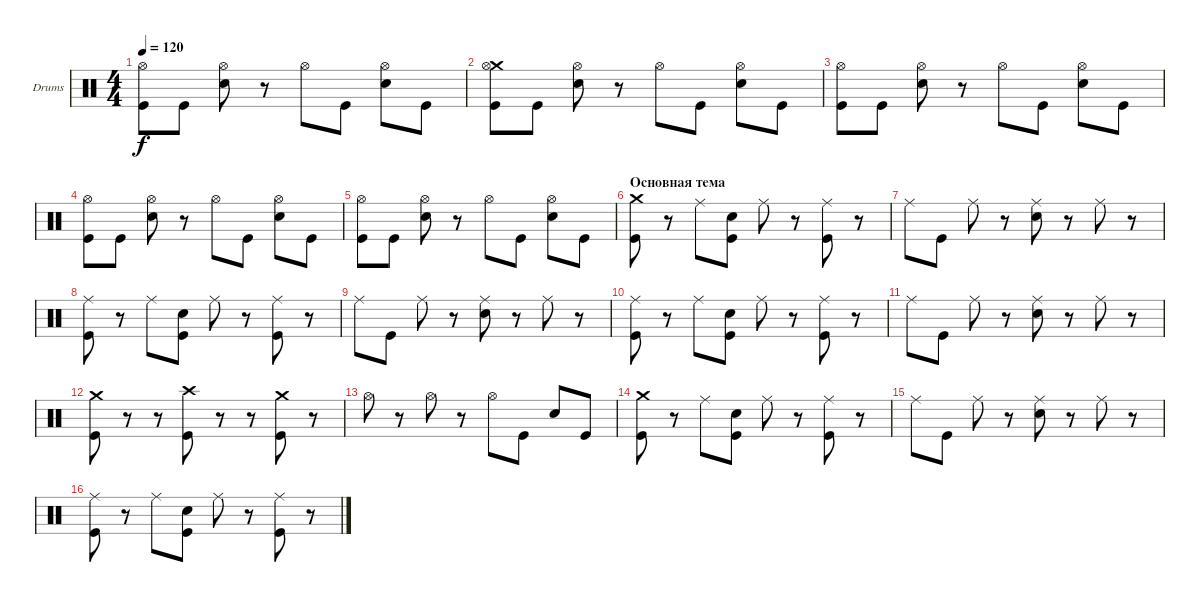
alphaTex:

\defaultSystemsLayout 4
\bracketExtendMode groupsimilarinstruments
\firstSystemTrackNameOrientation horizontal
\otherSystemsTrackNameOrientation horizontal
\track ("Drumkit" "Drums") {instrument percussion}
\staff {score}
\articulation defaults
\ts (4 4)
\tempo 120
\clef neutral
\scale
0.333333
\ks c
("Hi-Hat (open)" "Kick (hit)").8{dy f} "Kick (hit)".8 ("Hi-Hat (open)" "Snare (hit) 2").8 r.8 "Hi-Hat (open)".8 "Kick (hit)".8 ("Hi-Hat (open)" "Snare (hit) 2").8 "Kick (hit)".8 |
\scale
0.333333 ("Crash medium (hit)" "Hi-Hat (open)" "Kick (hit)").8 "Kick (hit)".8 ("Hi-Hat (open)" "Snare (hit) 2").8 r.8 "Hi-Hat (open)".8 "Kick (hit)".8 ("Hi-Hat (open)" "Snare (hit) 2").8 "Kick (hit)".8 |
\scale
0.333333 ("Hi-Hat (open)" "Kick (hit)").8 "Kick (hit)".8 ("Hi-Hat (open)" "Snare (hit) 2").8 r.8 "Hi-Hat (open)".8 "Kick (hit)".8 ("Hi-Hat (open)" "Snare (hit) 2").8 "Kick (hit)".8 |
\scale
0.333333 ("Hi-Hat (open)" "Kick (hit)").8 "Kick (hit)".8 ("Hi-Hat (open)" "Snare (hit) 2").8 r.8 "Hi-Hat (open)".8 "Kick (hit)".8 ("Hi-Hat (open)" "Snare (hit) 2").8 "Kick (hit)".8 |
\scale
0.333333 ("Hi-Hat (open)" "Kick (hit)").8 "Kick (hit)".8 ("Hi-Hat (open)" "Snare (hit) 2").8 r.8 "Hi-Hat (open)".8 "Kick (hit)".8 ("Hi-Hat (open)" "Snare (hit) 2").8 "Kick (hit)".8 |
\section ("" "Основная тема")
\scale
0.333333 ("Crash medium (hit)" "Kick (hit)").8 r.8 "Ride (middle)".8 ("Snare (hit) 2" "Kick (hit)").8 "Ride (middle)".8 r.8 ("Ride (middle)" "Kick (hit)").8 r.8 |
\scale
0.333333 "Ride (middle)".8 "Kick (hit)".8 "Ride (middle)".8 r.8 ("Ride (middle)" "Snare (hit) 2").8 r.8 "Ride (middle)".8 r.8 |
\scale
0.333333 ("Ride (middle)" "Kick (hit)").8 r.8 "Ride (middle)".8 ("Snare (hit) 2" "Kick (hit)").8 "Ride (middle)".8 r.8 ("Ride (middle)" "Kick (hit)").8 r.8 |
\scale
0.333333 "Ride (middle)".8 "Kick (hit)".8 "Ride (middle)".8 r.8 ("Ride (middle)" "Snare (hit) 2").8 r.8 "Ride (middle)".8 r.8 |
\scale
0.333333 ("Ride (middle)" "Kick (hit)").8 r.8 "Ride (middle)".8 ("Snare (hit) 2" "Kick (hit)").8 "Ride (middle)".8 r.8 ("Ride (middle)" "Kick (hit)").8 r.8 |
\scale
0.333333 "Ride (middle)".8 "Kick (hit)".8 "Ride (middle)".8 r.8 ("Ride (middle)" "Snare (hit) 2").8 r.8 "Ride (middle)".8 r.8 |
\scale
0.333333 ("Crash medium (hit)" "Kick (hit)").8 r.8 r.8 ("Crash high (hit)" "Kick (hit)").8 r.8 r.8 ("Crash medium (hit)" "Kick (hit)").8 r.8 |
\scale
0.333333 "Hi-Hat (open)".8 r.8 "Hi-Hat (open)".8 r.8 "Hi-Hat (open)".8 "Kick (hit)".8 "Snare (hit) 2".8 "Kick (hit)".8 |
\scale
0.333333 ("Crash medium (hit)" "Kick (hit)").8 r.8 "Ride (middle)".8 ("Snare (hit) 2" "Kick (hit)").8 "Ride (middle)".8 r.8 ("Ride (middle)" "Kick (hit)").8 r.8 |
\scale
0.333333 "Ride (middle)".8 "Kick (hit)".8 "Ride (middle)".8 r.8 ("Ride (middle)" "Snare (hit) 2").8 r.8 "Ride (middle)".8 r.8 |
\scale
0.333333 ("Ride (middle)" "Kick (hit)").8 r.8 "Ride (middle)".8 ("Snare (hit) 2" "Kick (hit)").8 "Ride (middle)".8 r.8 ("Ride (middle)" "Kick (hit)").8 r.8
